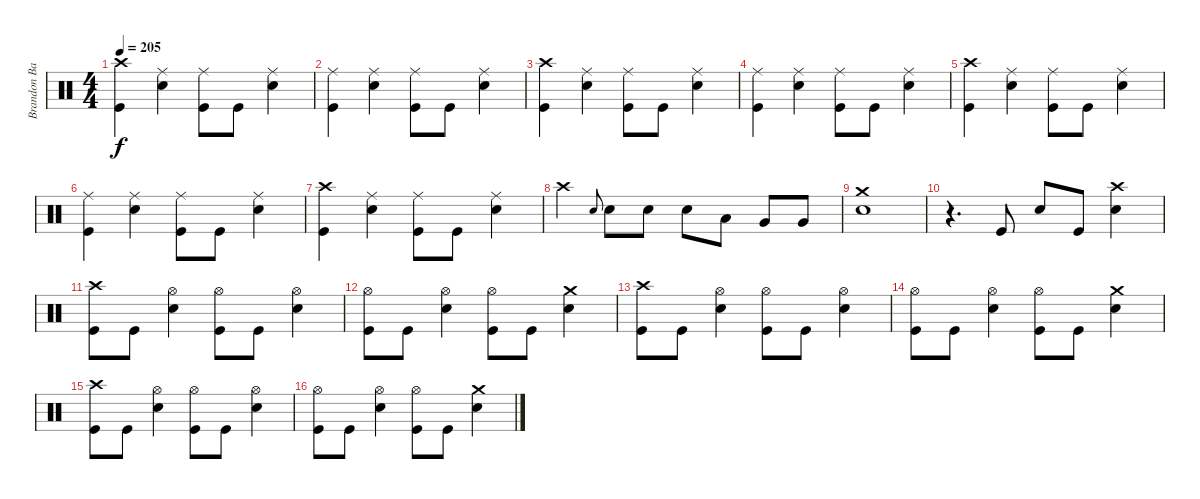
\track ("Brandon Barnes" "Brandon Ba") {instrument percussion}
\staff {score}
\articulation defaults
\ts (4 4)
\tempo 205
\clef neutral
\ks c
("Kick (hit)" "Crash high (hit)").4{dy f} ("Electric Snare (hit)" "Ride (middle)").4 ("Kick (hit)" "Ride (middle)").8 "Kick (hit)".8 ("Electric Snare (hit)" "Ride (middle)").4 |
("Kick (hit)" "Ride (middle)").4 ("Electric Snare (hit)" "Ride (middle)").4 ("Kick (hit)" "Ride (middle)").8 "Kick (hit)".8 ("Electric Snare (hit)" "Ride (middle)").4 |
("Kick (hit)" "Crash high (hit)").4 ("Electric Snare (hit)" "Ride (middle)").4 ("Kick (hit)" "Ride (middle)").8 "Kick (hit)".8 ("Electric Snare (hit)" "Ride (middle)").4 |
("Kick (hit)" "Ride (middle)").4 ("Electric Snare (hit)" "Ride (middle)").4 ("Kick (hit)" "Ride (middle)").8 "Kick (hit)".8 ("Electric Snare (hit)" "Ride (middle)").4 |
("Kick (hit)" "Crash high (hit)").4 ("Electric Snare (hit)" "Ride (middle)").4 ("Kick (hit)" "Ride (middle)").8 "Kick (hit)".8 ("Electric Snare (hit)" "Ride (middle)").4 |
("Kick (hit)" "Ride (middle)").4 ("Electric Snare (hit)" "Ride (middle)").4 ("Kick (hit)" "Ride (middle)").8 "Kick (hit)".8 ("Electric Snare (hit)" "Ride (middle)").4 |
("Kick (hit)" "Crash high (hit)").4 ("Electric Snare (hit)" "Ride (middle)").4 ("Kick (hit)" "Ride (middle)").8 "Kick (hit)".8 ("Electric Snare (hit)" "Ride (middle)").4 |
"Crash high (hit)".4 "Electric Snare (hit)".8{gr onbeat} "Electric Snare (hit)".8 "Electric Snare (hit)".8 "Electric Snare (hit)".8 "Low Tom (hit)".8 "Very Low Tom (hit)".8 "Very Low Tom (hit)".8 |
("Electric Snare (hit)" "Crash medium (hit)").1 |
r.4{d} "Kick (hit)".8 "Electric Snare (hit)".8 "Kick (hit)".8 ("Electric Snare (hit)" "Crash high (hit)").4 |
("Kick (hit)" "Crash high (hit)").8 "Kick (hit)".8 ("Electric Snare (hit)" "Hi-Hat (open)").4 ("Kick (hit)" "Hi-Hat (open)").8 "Kick (hit)".8 ("Electric Snare (hit)" "Hi-Hat (open)").4 |
("Kick (hit)" "Hi-Hat (open)").8 "Kick (hit)".8 ("Electric Snare (hit)" "Hi-Hat (open)").4 ("Kick (hit)" "Hi-Hat (open)").8 "Kick (hit)".8 ("Electric Snare (hit)" "Crash medium (hit)").4 |
("Kick (hit)" "Crash high (hit)").8 "Kick (hit)".8 ("Electric Snare (hit)" "Hi-Hat (open)").4 ("Kick (hit)" "Hi-Hat (open)").8 "Kick (hit)".8 ("Electric Snare (hit)" "Hi-Hat (open)").4 |
("Kick (hit)" "Hi-Hat (open)").8 "Kick (hit)".8 ("Electric Snare (hit)" "Hi-Hat (open)").4 ("Kick (hit)" "Hi-Hat (open)").8 "Kick (hit)".8 ("Electric Snare (hit)" "Crash medium (hit)").4 |
("Kick (hit)" "Crash high (hit)").8 "Kick (hit)".8 ("Electric Snare (hit)" "Hi-Hat (open)").4 ("Kick (hit)" "Hi-Hat (open)").8 "Kick (hit)".8 ("Electric Snare (hit)" "Hi-Hat (open)").4 |
("Kick (hit)" "Hi-Hat (open)").8 "Kick (hit)".8 ("Electric Snare (hit)" "Hi-Hat (open)").4 ("Kick (hit)" "Hi-Hat (open)").8 "Kick (hit)".8 ("Electric Snare (hit)" "Crash medium (hit)").4
